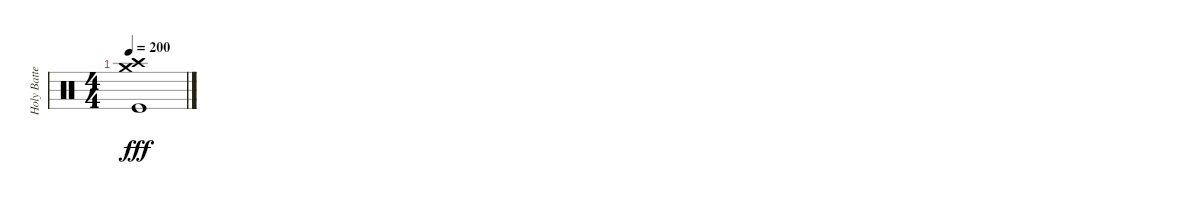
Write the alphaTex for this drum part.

\track ("Holy Batteur" "Holy Batte") {instrument percussion}
\staff {score}
\articulation defaults
\ts (4 4)
\tempo 200
\clef neutral
\ks c
("Crash high (hit)" "Crash medium (hit)" "Kick (hit)").1{dy fff}
